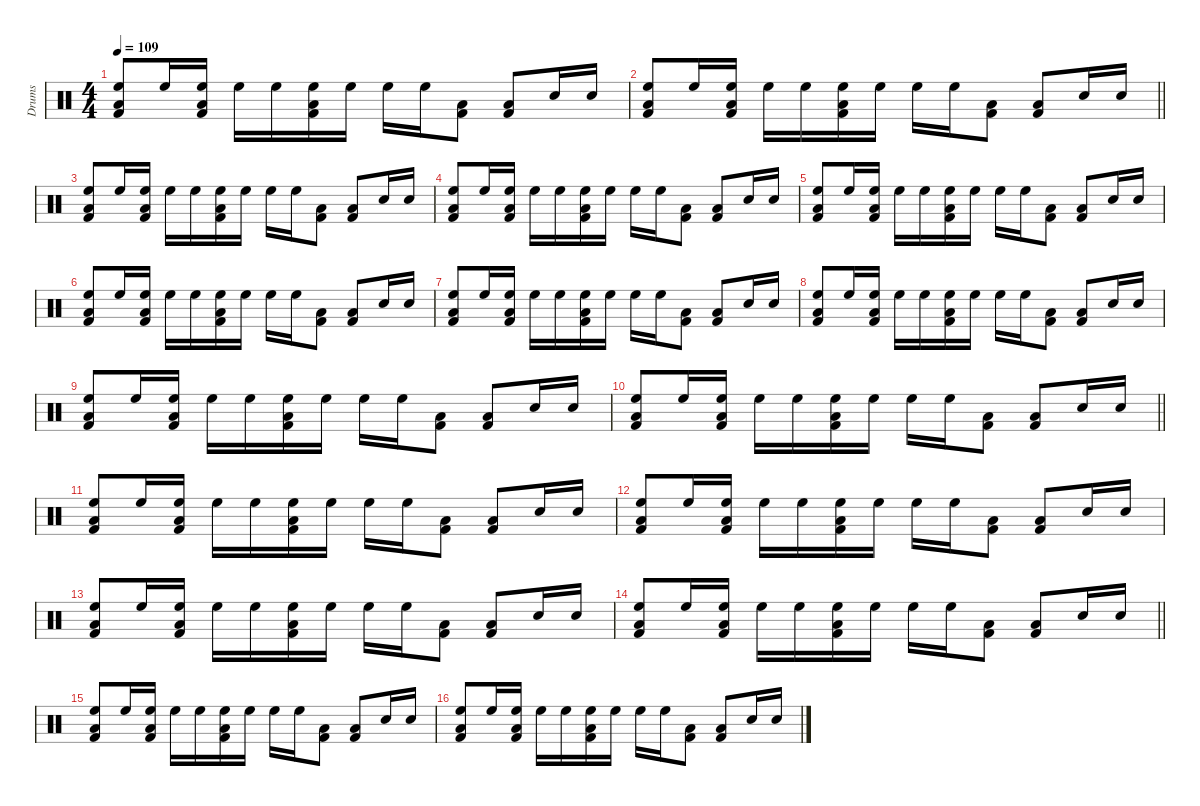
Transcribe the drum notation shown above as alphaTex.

\defaultSystemsLayout 4
\hideDynamics
\bracketExtendMode nobrackets
\otherSystemsTrackNameOrientation horizontal
\track ("Drums" "Drums") {instrument percussion}
\staff {score}
\articulation defaults
\ts (4 4)
\tempo 109
\clef neutral
\ks c
("Kick (hit) 2" "Low Tom (hit)" "High Floor Tom (hit)").8{dy mp beam Up} "High Floor Tom (hit)".16{beam Up} ("Kick (hit) 2" "Low Tom (hit)" "High Floor Tom (hit)").16{beam Up} "High Floor Tom (hit)".16{beam Down} "High Floor Tom (hit)".16{beam Down} ("Kick (hit) 2" "Low Tom (hit)" "High Floor Tom (hit)").16{beam Down} "High Floor Tom (hit)".16{beam Down} "High Floor Tom (hit)".16{beam Down} "High Floor Tom (hit)".16{beam Down} ("Kick (hit) 2" "Low Tom (hit)").8{beam Down} ("Kick (hit) 2" "Low Tom (hit)").8{beam Up} "Snare (hit) 2".16{beam Up} "Snare (hit) 2".16{beam Up} |
\barLineRight lightlight
("Kick (hit) 2" "Low Tom (hit)" "High Floor Tom (hit)").8{beam Up} "High Floor Tom (hit)".16{beam Up} ("Kick (hit) 2" "Low Tom (hit)" "High Floor Tom (hit)").16{beam Up} "High Floor Tom (hit)".16{beam Down} "High Floor Tom (hit)".16{beam Down} ("Kick (hit) 2" "Low Tom (hit)" "High Floor Tom (hit)").16{beam Down} "High Floor Tom (hit)".16{beam Down} "High Floor Tom (hit)".16{beam Down} "High Floor Tom (hit)".16{beam Down} ("Kick (hit) 2" "Low Tom (hit)").8{beam Down} ("Kick (hit) 2" "Low Tom (hit)").8{beam Up} "Snare (hit) 2".16{beam Up} "Snare (hit) 2".16{beam Up} |
\scale
0.5 ("Kick (hit) 2" "Low Tom (hit)" "High Floor Tom (hit)").8{beam Up} "High Floor Tom (hit)".16{beam Up} ("Kick (hit) 2" "Low Tom (hit)" "High Floor Tom (hit)").16{beam Up} "High Floor Tom (hit)".16{beam Down} "High Floor Tom (hit)".16{beam Down} ("Kick (hit) 2" "Low Tom (hit)" "High Floor Tom (hit)").16{beam Down} "High Floor Tom (hit)".16{beam Down} "High Floor Tom (hit)".16{beam Down} "High Floor Tom (hit)".16{beam Down} ("Kick (hit) 2" "Low Tom (hit)").8{beam Down} ("Kick (hit) 2" "Low Tom (hit)").8{beam Up} "Snare (hit) 2".16{beam Up} "Snare (hit) 2".16{beam Up} |
\scale
0.5 ("Kick (hit) 2" "Low Tom (hit)" "High Floor Tom (hit)").8{beam Up} "High Floor Tom (hit)".16{beam Up} ("Kick (hit) 2" "Low Tom (hit)" "High Floor Tom (hit)").16{beam Up} "High Floor Tom (hit)".16{beam Down} "High Floor Tom (hit)".16{beam Down} ("Kick (hit) 2" "Low Tom (hit)" "High Floor Tom (hit)").16{beam Down} "High Floor Tom (hit)".16{beam Down} "High Floor Tom (hit)".16{beam Down} "High Floor Tom (hit)".16{beam Down} ("Kick (hit) 2" "Low Tom (hit)").8{beam Down} ("Kick (hit) 2" "Low Tom (hit)").8{beam Up} "Snare (hit) 2".16{beam Up} "Snare (hit) 2".16{beam Up} |
\scale
0.5 ("Kick (hit) 2" "Low Tom (hit)" "High Floor Tom (hit)").8{beam Up} "High Floor Tom (hit)".16{beam Up} ("Kick (hit) 2" "Low Tom (hit)" "High Floor Tom (hit)").16{beam Up} "High Floor Tom (hit)".16{beam Down} "High Floor Tom (hit)".16{beam Down} ("Kick (hit) 2" "Low Tom (hit)" "High Floor Tom (hit)").16{beam Down} "High Floor Tom (hit)".16{beam Down} "High Floor Tom (hit)".16{beam Down} "High Floor Tom (hit)".16{beam Down} ("Kick (hit) 2" "Low Tom (hit)").8{beam Down} ("Kick (hit) 2" "Low Tom (hit)").8{beam Up} "Snare (hit) 2".16{beam Up} "Snare (hit) 2".16{beam Up} |
\scale
0.5 ("Kick (hit) 2" "Low Tom (hit)" "High Floor Tom (hit)").8{beam Up} "High Floor Tom (hit)".16{beam Up} ("Kick (hit) 2" "Low Tom (hit)" "High Floor Tom (hit)").16{beam Up} "High Floor Tom (hit)".16{beam Down} "High Floor Tom (hit)".16{beam Down} ("Kick (hit) 2" "Low Tom (hit)" "High Floor Tom (hit)").16{beam Down} "High Floor Tom (hit)".16{beam Down} "High Floor Tom (hit)".16{beam Down} "High Floor Tom (hit)".16{beam Down} ("Kick (hit) 2" "Low Tom (hit)").8{beam Down} ("Kick (hit) 2" "Low Tom (hit)").8{beam Up} "Snare (hit) 2".16{beam Up} "Snare (hit) 2".16{beam Up} |
\scale
0.5 ("Kick (hit) 2" "Low Tom (hit)" "High Floor Tom (hit)").8{beam Up} "High Floor Tom (hit)".16{beam Up} ("Kick (hit) 2" "Low Tom (hit)" "High Floor Tom (hit)").16{beam Up} "High Floor Tom (hit)".16{beam Down} "High Floor Tom (hit)".16{beam Down} ("Kick (hit) 2" "Low Tom (hit)" "High Floor Tom (hit)").16{beam Down} "High Floor Tom (hit)".16{beam Down} "High Floor Tom (hit)".16{beam Down} "High Floor Tom (hit)".16{beam Down} ("Kick (hit) 2" "Low Tom (hit)").8{beam Down} ("Kick (hit) 2" "Low Tom (hit)").8{beam Up} "Snare (hit) 2".16{beam Up} "Snare (hit) 2".16{beam Up} |
\scale
0.5 ("Kick (hit) 2" "Low Tom (hit)" "High Floor Tom (hit)").8{beam Up} "High Floor Tom (hit)".16{beam Up} ("Kick (hit) 2" "Low Tom (hit)" "High Floor Tom (hit)").16{beam Up} "High Floor Tom (hit)".16{beam Down} "High Floor Tom (hit)".16{beam Down} ("Kick (hit) 2" "Low Tom (hit)" "High Floor Tom (hit)").16{beam Down} "High Floor Tom (hit)".16{beam Down} "High Floor Tom (hit)".16{beam Down} "High Floor Tom (hit)".16{beam Down} ("Kick (hit) 2" "Low Tom (hit)").8{beam Down} ("Kick (hit) 2" "Low Tom (hit)").8{beam Up} "Snare (hit) 2".16{beam Up} "Snare (hit) 2".16{beam Up} |
\scale
0.5 ("Kick (hit) 2" "Low Tom (hit)" "High Floor Tom (hit)").8{beam Up} "High Floor Tom (hit)".16{beam Up} ("Kick (hit) 2" "Low Tom (hit)" "High Floor Tom (hit)").16{beam Up} "High Floor Tom (hit)".16{beam Down} "High Floor Tom (hit)".16{beam Down} ("Kick (hit) 2" "Low Tom (hit)" "High Floor Tom (hit)").16{beam Down} "High Floor Tom (hit)".16{beam Down} "High Floor Tom (hit)".16{beam Down} "High Floor Tom (hit)".16{beam Down} ("Kick (hit) 2" "Low Tom (hit)").8{beam Down} ("Kick (hit) 2" "Low Tom (hit)").8{beam Up} "Snare (hit) 2".16{beam Up} "Snare (hit) 2".16{beam Up} |
\scale
0.5
\barLineRight lightlight
("Kick (hit) 2" "Low Tom (hit)" "High Floor Tom (hit)").8{beam Up} "High Floor Tom (hit)".16{beam Up} ("Kick (hit) 2" "Low Tom (hit)" "High Floor Tom (hit)").16{beam Up} "High Floor Tom (hit)".16{beam Down} "High Floor Tom (hit)".16{beam Down} ("Kick (hit) 2" "Low Tom (hit)" "High Floor Tom (hit)").16{beam Down} "High Floor Tom (hit)".16{beam Down} "High Floor Tom (hit)".16{beam Down} "High Floor Tom (hit)".16{beam Down} ("Kick (hit) 2" "Low Tom (hit)").8{beam Down} ("Kick (hit) 2" "Low Tom (hit)").8{beam Up} "Snare (hit) 2".16{beam Up} "Snare (hit) 2".16{beam Up} |
\scale
0.5 ("Kick (hit) 2" "Low Tom (hit)" "High Floor Tom (hit)").8{beam Up} "High Floor Tom (hit)".16{beam Up} ("Kick (hit) 2" "Low Tom (hit)" "High Floor Tom (hit)").16{beam Up} "High Floor Tom (hit)".16{beam Down} "High Floor Tom (hit)".16{beam Down} ("Kick (hit) 2" "Low Tom (hit)" "High Floor Tom (hit)").16{beam Down} "High Floor Tom (hit)".16{beam Down} "High Floor Tom (hit)".16{beam Down} "High Floor Tom (hit)".16{beam Down} ("Kick (hit) 2" "Low Tom (hit)").8{beam Down} ("Kick (hit) 2" "Low Tom (hit)").8{beam Up} "Snare (hit) 2".16{beam Up} "Snare (hit) 2".16{beam Up} |
\scale
0.5 ("Kick (hit) 2" "Low Tom (hit)" "High Floor Tom (hit)").8{beam Up} "High Floor Tom (hit)".16{beam Up} ("Kick (hit) 2" "Low Tom (hit)" "High Floor Tom (hit)").16{beam Up} "High Floor Tom (hit)".16{beam Down} "High Floor Tom (hit)".16{beam Down} ("Kick (hit) 2" "Low Tom (hit)" "High Floor Tom (hit)").16{beam Down} "High Floor Tom (hit)".16{beam Down} "High Floor Tom (hit)".16{beam Down} "High Floor Tom (hit)".16{beam Down} ("Kick (hit) 2" "Low Tom (hit)").8{beam Down} ("Kick (hit) 2" "Low Tom (hit)").8{beam Up} "Snare (hit) 2".16{beam Up} "Snare (hit) 2".16{beam Up} |
\scale
0.5 ("Kick (hit) 2" "Low Tom (hit)" "High Floor Tom (hit)").8{beam Up} "High Floor Tom (hit)".16{beam Up} ("Kick (hit) 2" "Low Tom (hit)" "High Floor Tom (hit)").16{beam Up} "High Floor Tom (hit)".16{beam Down} "High Floor Tom (hit)".16{beam Down} ("Kick (hit) 2" "Low Tom (hit)" "High Floor Tom (hit)").16{beam Down} "High Floor Tom (hit)".16{beam Down} "High Floor Tom (hit)".16{beam Down} "High Floor Tom (hit)".16{beam Down} ("Kick (hit) 2" "Low Tom (hit)").8{beam Down} ("Kick (hit) 2" "Low Tom (hit)").8{beam Up} "Snare (hit) 2".16{beam Up} "Snare (hit) 2".16{beam Up} |
\scale
0.5
\barLineRight lightlight
("Kick (hit) 2" "Low Tom (hit)" "High Floor Tom (hit)").8{beam Up} "High Floor Tom (hit)".16{beam Up} ("Kick (hit) 2" "Low Tom (hit)" "High Floor Tom (hit)").16{beam Up} "High Floor Tom (hit)".16{beam Down} "High Floor Tom (hit)".16{beam Down} ("Kick (hit) 2" "Low Tom (hit)" "High Floor Tom (hit)").16{beam Down} "High Floor Tom (hit)".16{beam Down} "High Floor Tom (hit)".16{beam Down} "High Floor Tom (hit)".16{beam Down} ("Kick (hit) 2" "Low Tom (hit)").8{beam Down} ("Kick (hit) 2" "Low Tom (hit)").8{beam Up} "Snare (hit) 2".16{beam Up} "Snare (hit) 2".16{beam Up} |
\scale
0.5 ("Kick (hit) 2" "Low Tom (hit)" "High Floor Tom (hit)").8{beam Up} "High Floor Tom (hit)".16{beam Up} ("Kick (hit) 2" "Low Tom (hit)" "High Floor Tom (hit)").16{beam Up} "High Floor Tom (hit)".16{beam Down} "High Floor Tom (hit)".16{beam Down} ("Kick (hit) 2" "Low Tom (hit)" "High Floor Tom (hit)").16{beam Down} "High Floor Tom (hit)".16{beam Down} "High Floor Tom (hit)".16{beam Down} "High Floor Tom (hit)".16{beam Down} ("Kick (hit) 2" "Low Tom (hit)").8{beam Down} ("Kick (hit) 2" "Low Tom (hit)").8{beam Up} "Snare (hit) 2".16{beam Up} "Snare (hit) 2".16{beam Up} |
\scale
0.5 ("Kick (hit) 2" "Low Tom (hit)" "High Floor Tom (hit)").8{beam Up} "High Floor Tom (hit)".16{beam Up} ("Kick (hit) 2" "Low Tom (hit)" "High Floor Tom (hit)").16{beam Up} "High Floor Tom (hit)".16{beam Down} "High Floor Tom (hit)".16{beam Down} ("Kick (hit) 2" "Low Tom (hit)" "High Floor Tom (hit)").16{beam Down} "High Floor Tom (hit)".16{beam Down} "High Floor Tom (hit)".16{beam Down} "High Floor Tom (hit)".16{beam Down} ("Kick (hit) 2" "Low Tom (hit)").8{beam Down} ("Kick (hit) 2" "Low Tom (hit)").8{beam Up} "Snare (hit) 2".16{beam Up} "Snare (hit) 2".16{beam Up}
